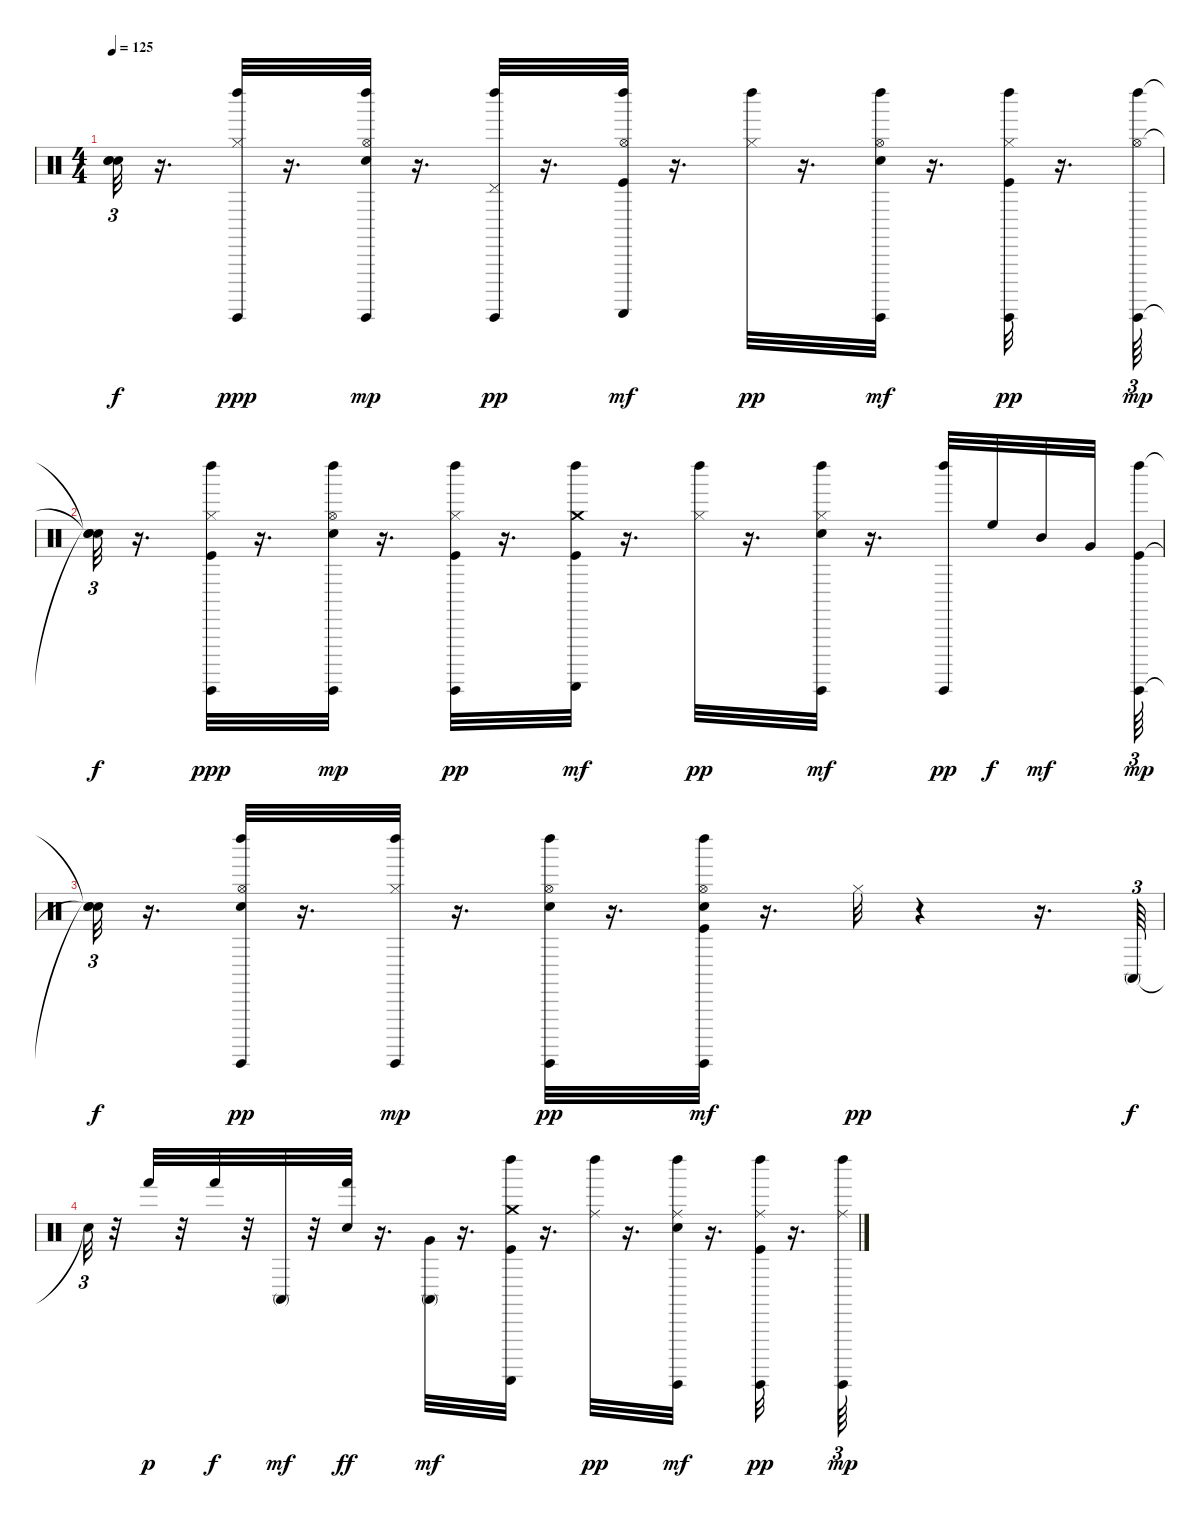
\track "" {instrument percussion}
\staff {score}
\articulation defaults
\ts (4 4)
\tempo 125
\clef neutral
\ks c
("Snare (hit)"{t} "Snare (hit)"{t} "Snare (hit)"{t}).32{tu (3 2) dy f} r.16{d} ("Left Maraca (hit)" "Hi-Hat (closed)" "Guiro (hit)").32{dy ppp} r.16{d} ("Hi-Hat (open)" "Left Maraca (hit)" "Electric Snare (hit)" "Guiro (hit)").32{dy mp} r.16{d} ("Pedal Hi-Hat (hit)" "Left Maraca (hit)" "Guiro (hit)").32{dy pp} r.16{d} ("Kick (hit)" "Left Maraca (hit)" "Hi-Hat (open)" "Guiro (scrap-return)").32{dy mf} r.16{d} ("Left Maraca (hit)" "Hi-Hat (closed)").32{dy pp} r.16{d} ("Hi-Hat (open)" "Left Maraca (hit)" "Electric Snare (hit)" "Guiro (hit)").32{dy mf} r.16{d} ("Kick (hit)" "Hi-Hat (closed)" "Left Maraca (hit)" "Guiro (hit)").32{dy pp} r.16{d} ("Hi-Hat (open)" "Left Maraca (hit)" "Guiro (hit)").64{tu (3 2) dy mp} |
("Snare (hit)"{t} "Snare (hit)"{t} "Snare (hit)"{t}).32{tu (3 2) dy f} r.16{d} ("Hi-Hat (closed)" "Left Maraca (hit)" "Kick (hit)" "Guiro (hit)").32{dy ppp} r.16{d} ("Hi-Hat (open)" "Left Maraca (hit)" "Electric Snare (hit)" "Guiro (hit)").32{dy mp} r.16{d} ("Kick (hit)" "Left Maraca (hit)" "Hi-Hat (closed)" "Guiro (hit)").32{dy pp} r.16{d} ("Kick (hit)" "Left Maraca (hit)" "Crash medium (hit)" "Guiro (scrap-return)").32{dy mf} r.16{d} ("Hi-Hat (closed)" "Left Maraca (hit)").32{dy pp} r.16{d} ("Left Maraca (hit)" "Hi-Hat (closed)" "Electric Snare (hit)" "Guiro (hit)").32{dy mf} r.16{d} ("Left Maraca (hit)" "Guiro (hit)").32{dy pp} "High Floor Tom (hit)".32{dy f} "Mid Tom (hit)".32{dy mf} "Very Low Tom (hit)".32{beam splitsecondary} ("Kick (hit)" "Left Maraca (hit)" "Guiro (hit)").64{tu (3 2) dy mp} |
("Snare (hit)"{t} "Snare (hit)"{t} "Snare (hit)"{t}).32{tu (3 2) dy f} r.16{d} ("Hi-Hat (open)" "Electric Snare (hit)" "Left Maraca (hit)" "Guiro (hit)").32{dy pp} r.16{d} ("Left Maraca (hit)" "Hi-Hat (closed)" "Guiro (hit)").32{dy mp} r.16{d} ("Hi-Hat (open)" "Left Maraca (hit)" "Electric Snare (hit)" "Guiro (hit)").32{dy pp} r.16{d} ("Kick (hit)" "Left Maraca (hit)" "Electric Snare (hit)" "Guiro (hit)" "Hi-Hat (open)").32{dy mf} r.16{d} "Hi-Hat (closed)".32{dy pp} r.4 r.16{d} "Conga high (mute)".64{tu (3 2) dy f} |
"Snare (hit)"{t}.32{tu (3 2)} r.32 "Hand (hit)".32{dy p} r.32 "Hand (hit)".32{dy f} r.32 "Conga high (mute)".32{dy mf} r.32 ("Hand (hit)" "Electric Snare (hit)").32{dy ff} r.16{d} ("Conga high (mute)" "Very Low Tom (hit)").32{dy mf} r.16{d} ("Kick (hit)" "Left Maraca (hit)" "Crash medium (hit)" "Guiro (scrap-return)").32 r.16{d} ("Left Maraca (hit)" "Ride (middle)").32{dy pp} r.16{d} ("Ride (middle)" "Electric Snare (hit)" "Left Maraca (hit)" "Guiro (hit)").32{dy mf} r.16{d} ("Kick (hit)" "Left Maraca (hit)" "Ride (middle)" "Guiro (hit)").32{dy pp} r.16{d} ("Ride (middle)" "Left Maraca (hit)" "Guiro (hit)").64{tu (3 2) dy mp}
